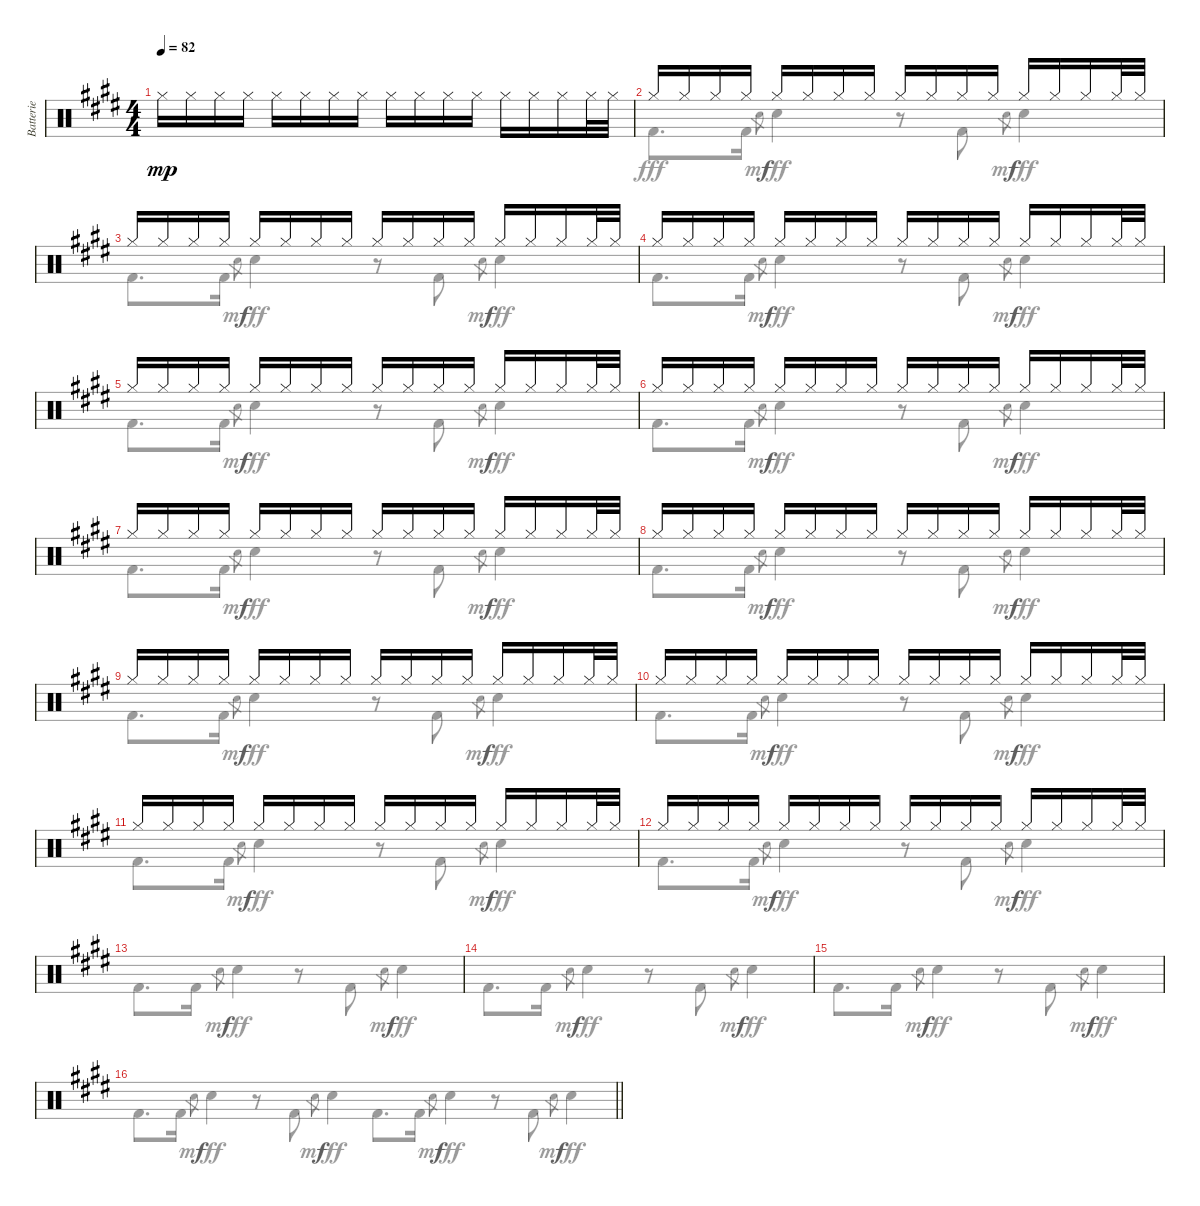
\track ("Batterie" "Batterie") {instrument percussion}
\staff {score}
\articulation defaults
\voice
\ts (4 4)
\tempo 82
\clef neutral
\ks e "Hi-Hat (closed)".16{dy mp} "Hi-Hat (closed)".16 "Hi-Hat (closed)".16 "Hi-Hat (closed)".16 "Hi-Hat (closed)".16 "Hi-Hat (closed)".16 "Hi-Hat (closed)".16 "Hi-Hat (closed)".16 "Hi-Hat (closed)".16 "Hi-Hat (closed)".16 "Hi-Hat (closed)".16 "Hi-Hat (closed)".16 "Hi-Hat (closed)".16 "Hi-Hat (closed)".16 "Hi-Hat (closed)".16 "Hi-Hat (closed)".32 "Hi-Hat (closed)".32
|
"Hi-Hat (closed)".16 "Hi-Hat (closed)".16 "Hi-Hat (closed)".16 "Hi-Hat (closed)".16 "Hi-Hat (closed)".16 "Hi-Hat (closed)".16 "Hi-Hat (closed)".16 "Hi-Hat (closed)".16 "Hi-Hat (closed)".16 "Hi-Hat (closed)".16 "Hi-Hat (closed)".16 "Hi-Hat (closed)".16 "Hi-Hat (closed)".16 "Hi-Hat (closed)".16 "Hi-Hat (closed)".16 "Hi-Hat (closed)".32 "Hi-Hat (closed)".32 |
"Hi-Hat (closed)".16 "Hi-Hat (closed)".16 "Hi-Hat (closed)".16 "Hi-Hat (closed)".16 "Hi-Hat (closed)".16 "Hi-Hat (closed)".16 "Hi-Hat (closed)".16 "Hi-Hat (closed)".16 "Hi-Hat (closed)".16 "Hi-Hat (closed)".16 "Hi-Hat (closed)".16 "Hi-Hat (closed)".16 "Hi-Hat (closed)".16 "Hi-Hat (closed)".16 "Hi-Hat (closed)".16 "Hi-Hat (closed)".32 "Hi-Hat (closed)".32 |
"Hi-Hat (closed)".16 "Hi-Hat (closed)".16 "Hi-Hat (closed)".16 "Hi-Hat (closed)".16 "Hi-Hat (closed)".16 "Hi-Hat (closed)".16 "Hi-Hat (closed)".16 "Hi-Hat (closed)".16 "Hi-Hat (closed)".16 "Hi-Hat (closed)".16 "Hi-Hat (closed)".16 "Hi-Hat (closed)".16 "Hi-Hat (closed)".16 "Hi-Hat (closed)".16 "Hi-Hat (closed)".16 "Hi-Hat (closed)".32 "Hi-Hat (closed)".32 |
"Hi-Hat (closed)".16 "Hi-Hat (closed)".16 "Hi-Hat (closed)".16 "Hi-Hat (closed)".16 "Hi-Hat (closed)".16 "Hi-Hat (closed)".16 "Hi-Hat (closed)".16 "Hi-Hat (closed)".16 "Hi-Hat (closed)".16 "Hi-Hat (closed)".16 "Hi-Hat (closed)".16 "Hi-Hat (closed)".16 "Hi-Hat (closed)".16 "Hi-Hat (closed)".16 "Hi-Hat (closed)".16 "Hi-Hat (closed)".32 "Hi-Hat (closed)".32 |
"Hi-Hat (closed)".16 "Hi-Hat (closed)".16 "Hi-Hat (closed)".16 "Hi-Hat (closed)".16 "Hi-Hat (closed)".16 "Hi-Hat (closed)".16 "Hi-Hat (closed)".16 "Hi-Hat (closed)".16 "Hi-Hat (closed)".16 "Hi-Hat (closed)".16 "Hi-Hat (closed)".16 "Hi-Hat (closed)".16 "Hi-Hat (closed)".16 "Hi-Hat (closed)".16 "Hi-Hat (closed)".16 "Hi-Hat (closed)".32 "Hi-Hat (closed)".32 |
"Hi-Hat (closed)".16 "Hi-Hat (closed)".16 "Hi-Hat (closed)".16 "Hi-Hat (closed)".16 "Hi-Hat (closed)".16 "Hi-Hat (closed)".16 "Hi-Hat (closed)".16 "Hi-Hat (closed)".16 "Hi-Hat (closed)".16 "Hi-Hat (closed)".16 "Hi-Hat (closed)".16 "Hi-Hat (closed)".16 "Hi-Hat (closed)".16 "Hi-Hat (closed)".16 "Hi-Hat (closed)".16 "Hi-Hat (closed)".32 "Hi-Hat (closed)".32 |
"Hi-Hat (closed)".16 "Hi-Hat (closed)".16 "Hi-Hat (closed)".16 "Hi-Hat (closed)".16 "Hi-Hat (closed)".16 "Hi-Hat (closed)".16 "Hi-Hat (closed)".16 "Hi-Hat (closed)".16 "Hi-Hat (closed)".16 "Hi-Hat (closed)".16 "Hi-Hat (closed)".16 "Hi-Hat (closed)".16 "Hi-Hat (closed)".16 "Hi-Hat (closed)".16 "Hi-Hat (closed)".16 "Hi-Hat (closed)".32 "Hi-Hat (closed)".32 |
"Hi-Hat (closed)".16 "Hi-Hat (closed)".16 "Hi-Hat (closed)".16 "Hi-Hat (closed)".16 "Hi-Hat (closed)".16 "Hi-Hat (closed)".16 "Hi-Hat (closed)".16 "Hi-Hat (closed)".16 "Hi-Hat (closed)".16 "Hi-Hat (closed)".16 "Hi-Hat (closed)".16 "Hi-Hat (closed)".16 "Hi-Hat (closed)".16 "Hi-Hat (closed)".16 "Hi-Hat (closed)".16 "Hi-Hat (closed)".32 "Hi-Hat (closed)".32 |
"Hi-Hat (closed)".16 "Hi-Hat (closed)".16 "Hi-Hat (closed)".16 "Hi-Hat (closed)".16 "Hi-Hat (closed)".16 "Hi-Hat (closed)".16 "Hi-Hat (closed)".16 "Hi-Hat (closed)".16 "Hi-Hat (closed)".16 "Hi-Hat (closed)".16 "Hi-Hat (closed)".16 "Hi-Hat (closed)".16 "Hi-Hat (closed)".16 "Hi-Hat (closed)".16 "Hi-Hat (closed)".16 "Hi-Hat (closed)".32 "Hi-Hat (closed)".32 |
"Hi-Hat (closed)".16 "Hi-Hat (closed)".16 "Hi-Hat (closed)".16 "Hi-Hat (closed)".16 "Hi-Hat (closed)".16 "Hi-Hat (closed)".16 "Hi-Hat (closed)".16 "Hi-Hat (closed)".16 "Hi-Hat (closed)".16 "Hi-Hat (closed)".16 "Hi-Hat (closed)".16 "Hi-Hat (closed)".16 "Hi-Hat (closed)".16 "Hi-Hat (closed)".16 "Hi-Hat (closed)".16 "Hi-Hat (closed)".32 "Hi-Hat (closed)".32 |
"Hi-Hat (closed)".16 "Hi-Hat (closed)".16 "Hi-Hat (closed)".16 "Hi-Hat (closed)".16 "Hi-Hat (closed)".16 "Hi-Hat (closed)".16 "Hi-Hat (closed)".16 "Hi-Hat (closed)".16 "Hi-Hat (closed)".16 "Hi-Hat (closed)".16 "Hi-Hat (closed)".16 "Hi-Hat (closed)".16 "Hi-Hat (closed)".16 "Hi-Hat (closed)".16 "Hi-Hat (closed)".16 "Hi-Hat (closed)".32 "Hi-Hat (closed)".32 |
|
|
|
\barLineRight lightlight
\voice
\clef neutral
\ottava regular
\simile none
\ks e "Kick (hit) 2".8{d dy fff} "Kick (hit) 2".16 "Hand Clap (hit)".8{gr dy mf} "Hand Clap (hit)".4{dy fff}
r.8 "Kick (hit) 2".8 "Hand Clap (hit)".8{gr dy mf} "Hand Clap (hit)".4{dy fff} |
"Kick (hit) 2".8{d} "Kick (hit) 2".16 "Hand Clap (hit)".8{gr dy mf} "Hand Clap (hit)".4{dy fff} r.8 "Kick (hit) 2".8 "Hand Clap (hit)".8{gr dy mf} "Hand Clap (hit)".4{dy fff} |
"Kick (hit) 2".8{d} "Kick (hit) 2".16 "Hand Clap (hit)".8{gr dy mf} "Hand Clap (hit)".4{dy fff} r.8 "Kick (hit) 2".8 "Hand Clap (hit)".8{gr dy mf} "Hand Clap (hit)".4{dy fff} |
"Kick (hit) 2".8{d} "Kick (hit) 2".16 "Hand Clap (hit)".8{gr dy mf} "Hand Clap (hit)".4{dy fff} r.8 "Kick (hit) 2".8 "Hand Clap (hit)".8{gr dy mf} "Hand Clap (hit)".4{dy fff} |
"Kick (hit) 2".8{d} "Kick (hit) 2".16 "Hand Clap (hit)".8{gr dy mf} "Hand Clap (hit)".4{dy fff} r.8 "Kick (hit) 2".8 "Hand Clap (hit)".8{gr dy mf} "Hand Clap (hit)".4{dy fff} |
"Kick (hit) 2".8{d} "Kick (hit) 2".16 "Hand Clap (hit)".8{gr dy mf} "Hand Clap (hit)".4{dy fff} r.8 "Kick (hit) 2".8 "Hand Clap (hit)".8{gr dy mf} "Hand Clap (hit)".4{dy fff} |
"Kick (hit) 2".8{d} "Kick (hit) 2".16 "Hand Clap (hit)".8{gr dy mf} "Hand Clap (hit)".4{dy fff} r.8 "Kick (hit) 2".8 "Hand Clap (hit)".8{gr dy mf} "Hand Clap (hit)".4{dy fff} |
"Kick (hit) 2".8{d} "Kick (hit) 2".16 "Hand Clap (hit)".8{gr dy mf} "Hand Clap (hit)".4{dy fff} r.8 "Kick (hit) 2".8 "Hand Clap (hit)".8{gr dy mf} "Hand Clap (hit)".4{dy fff} |
"Kick (hit) 2".8{d} "Kick (hit) 2".16 "Hand Clap (hit)".8{gr dy mf} "Hand Clap (hit)".4{dy fff} r.8 "Kick (hit) 2".8 "Hand Clap (hit)".8{gr dy mf} "Hand Clap (hit)".4{dy fff} |
"Kick (hit) 2".8{d} "Kick (hit) 2".16 "Hand Clap (hit)".8{gr dy mf} "Hand Clap (hit)".4{dy fff} r.8 "Kick (hit) 2".8 "Hand Clap (hit)".8{gr dy mf} "Hand Clap (hit)".4{dy fff} |
"Kick (hit) 2".8{d} "Kick (hit) 2".16 "Hand Clap (hit)".8{gr dy mf} "Hand Clap (hit)".4{dy fff} r.8 "Kick (hit) 2".8 "Hand Clap (hit)".8{gr dy mf} "Hand Clap (hit)".4{dy fff} |
"Kick (hit) 2".8{d} "Kick (hit) 2".16 "Hand Clap (hit)".8{gr dy mf} "Hand Clap (hit)".4{dy fff} r.8 "Kick (hit) 2".8 "Hand Clap (hit)".8{gr dy mf} "Hand Clap (hit)".4{dy fff} |
"Kick (hit) 2".8{d} "Kick (hit) 2".16 "Hand Clap (hit)".8{gr dy mf} "Hand Clap (hit)".4{dy fff} r.8 "Kick (hit) 2".8 "Hand Clap (hit)".8{gr dy mf} "Hand Clap (hit)".4{dy fff} |
"Kick (hit) 2".8{d} "Kick (hit) 2".16 "Hand Clap (hit)".8{gr dy mf} "Hand Clap (hit)".4{dy fff} r.8 "Kick (hit) 2".8 "Hand Clap (hit)".8{gr dy mf} "Hand Clap (hit)".4{dy fff} |
"Kick (hit) 2".8{d} "Kick (hit) 2".16 "Hand Clap (hit)".8{gr dy mf} "Hand Clap (hit)".4{dy fff} r.8 "Kick (hit) 2".8 "Hand Clap (hit)".8{gr dy mf} "Hand Clap (hit)".4{dy fff} |
\barLineRight lightlight "Kick (hit) 2".8{d} "Kick (hit) 2".16 "Hand Clap (hit)".8{gr dy mf} "Hand Clap (hit)".4{dy fff}
r.8 "Kick (hit) 2".8 "Hand Clap (hit)".8{gr dy mf} "Hand Clap (hit)".4{dy fff}
